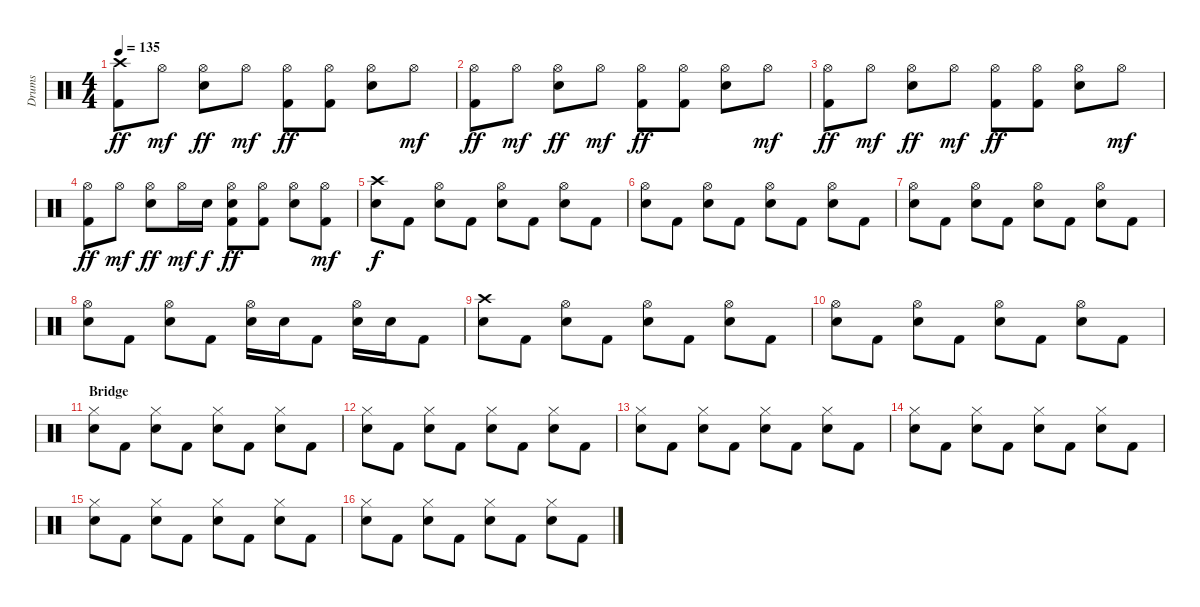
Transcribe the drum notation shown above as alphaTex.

\track ("Drums" "Drums") {instrument percussion}
\staff {score}
\articulation defaults
\ts (4 4)
\tempo 135
\clef neutral
\ks c
("Crash high (hit)" "Kick (hit) 2").8{dy ff} "Hi-Hat (open)".8{dy mf} ("Hi-Hat (open)" "Snare (hit) 2").8{dy ff} "Hi-Hat (open)".8{dy mf} ("Hi-Hat (open)" "Kick (hit) 2").8{dy ff} ("Hi-Hat (open)" "Kick (hit) 2").8 ("Hi-Hat (open)" "Snare (hit) 2").8 "Hi-Hat (open)".8{dy mf} |
("Hi-Hat (open)" "Kick (hit) 2").8{dy ff} "Hi-Hat (open)".8{dy mf} ("Hi-Hat (open)" "Snare (hit) 2").8{dy ff} "Hi-Hat (open)".8{dy mf} ("Hi-Hat (open)" "Kick (hit) 2").8{dy ff} ("Hi-Hat (open)" "Kick (hit) 2").8 ("Hi-Hat (open)" "Snare (hit) 2").8 "Hi-Hat (open)".8{dy mf} |
("Hi-Hat (open)" "Kick (hit) 2").8{dy ff} "Hi-Hat (open)".8{dy mf} ("Hi-Hat (open)" "Snare (hit) 2").8{dy ff} "Hi-Hat (open)".8{dy mf} ("Hi-Hat (open)" "Kick (hit) 2").8{dy ff} ("Hi-Hat (open)" "Kick (hit) 2").8 ("Hi-Hat (open)" "Snare (hit) 2").8 "Hi-Hat (open)".8{dy mf} |
("Hi-Hat (open)" "Kick (hit) 2").8{dy ff} "Hi-Hat (open)".8{dy mf} ("Hi-Hat (open)" "Snare (hit) 2").8{dy ff} "Hi-Hat (open)".16{dy mf} "Snare (hit) 2".16{dy f} ("Hi-Hat (open)" "Snare (hit) 2" "Kick (hit) 2").8{dy ff} ("Hi-Hat (open)" "Kick (hit) 2").8 ("Hi-Hat (open)" "Snare (hit) 2").8 ("Hi-Hat (open)" "Kick (hit) 2").8{dy mf} |
("Crash high (hit)" "Snare (hit) 2").8{dy f} "Kick (hit) 2".8 ("Hi-Hat (open)" "Snare (hit) 2").8 "Kick (hit) 2".8 ("Hi-Hat (open)" "Snare (hit) 2").8 "Kick (hit) 2".8 ("Hi-Hat (open)" "Snare (hit) 2").8 "Kick (hit) 2".8 |
("Hi-Hat (open)" "Snare (hit) 2").8 "Kick (hit) 2".8 ("Hi-Hat (open)" "Snare (hit) 2").8 "Kick (hit) 2".8 ("Hi-Hat (open)" "Snare (hit) 2").8 "Kick (hit) 2".8 ("Hi-Hat (open)" "Snare (hit) 2").8 "Kick (hit) 2".8 |
("Hi-Hat (open)" "Snare (hit) 2").8 "Kick (hit) 2".8 ("Hi-Hat (open)" "Snare (hit) 2").8 "Kick (hit) 2".8 ("Hi-Hat (open)" "Snare (hit) 2").8 "Kick (hit) 2".8 ("Hi-Hat (open)" "Snare (hit) 2").8 "Kick (hit) 2".8 |
("Hi-Hat (open)" "Snare (hit) 2").8 "Kick (hit) 2".8 ("Hi-Hat (open)" "Snare (hit) 2").8 "Kick (hit) 2".8 ("Hi-Hat (open)" "Snare (hit) 2").16 "Snare (hit) 2".16 "Kick (hit) 2".8 ("Hi-Hat (open)" "Snare (hit) 2").16 "Snare (hit) 2".16 "Kick (hit) 2".8 |
("Crash high (hit)" "Snare (hit) 2").8 "Kick (hit) 2".8 ("Hi-Hat (open)" "Snare (hit) 2").8 "Kick (hit) 2".8 ("Hi-Hat (open)" "Snare (hit) 2").8 "Kick (hit) 2".8 ("Hi-Hat (open)" "Snare (hit) 2").8 "Kick (hit) 2".8 |
("Hi-Hat (open)" "Snare (hit) 2").8 "Kick (hit) 2".8 ("Hi-Hat (open)" "Snare (hit) 2").8 "Kick (hit) 2".8 ("Hi-Hat (open)" "Snare (hit) 2").8 "Kick (hit) 2".8 ("Hi-Hat (open)" "Snare (hit) 2").8 "Kick (hit) 2".8 |
\section ("" "Bridge")
("Hi-Hat (closed)" "Snare (hit) 2").8 "Kick (hit) 2".8 ("Hi-Hat (closed)" "Snare (hit) 2").8 "Kick (hit) 2".8 ("Hi-Hat (closed)" "Snare (hit) 2").8 "Kick (hit) 2".8 ("Hi-Hat (closed)" "Snare (hit) 2").8 "Kick (hit) 2".8 |
("Hi-Hat (closed)" "Snare (hit) 2").8 "Kick (hit) 2".8 ("Hi-Hat (closed)" "Snare (hit) 2").8 "Kick (hit) 2".8 ("Hi-Hat (closed)" "Snare (hit) 2").8 "Kick (hit) 2".8 ("Hi-Hat (closed)" "Snare (hit) 2").8 "Kick (hit) 2".8 |
("Hi-Hat (closed)" "Snare (hit) 2").8 "Kick (hit) 2".8 ("Hi-Hat (closed)" "Snare (hit) 2").8 "Kick (hit) 2".8 ("Hi-Hat (closed)" "Snare (hit) 2").8 "Kick (hit) 2".8 ("Hi-Hat (closed)" "Snare (hit) 2").8 "Kick (hit) 2".8 |
("Hi-Hat (closed)" "Snare (hit) 2").8 "Kick (hit) 2".8 ("Hi-Hat (closed)" "Snare (hit) 2").8 "Kick (hit) 2".8 ("Hi-Hat (closed)" "Snare (hit) 2").8 "Kick (hit) 2".8 ("Hi-Hat (closed)" "Snare (hit) 2").8 "Kick (hit) 2".8 |
("Hi-Hat (closed)" "Snare (hit) 2").8 "Kick (hit) 2".8 ("Hi-Hat (closed)" "Snare (hit) 2").8 "Kick (hit) 2".8 ("Hi-Hat (closed)" "Snare (hit) 2").8 "Kick (hit) 2".8 ("Hi-Hat (closed)" "Snare (hit) 2").8 "Kick (hit) 2".8 |
("Hi-Hat (closed)" "Snare (hit) 2").8 "Kick (hit) 2".8 ("Hi-Hat (closed)" "Snare (hit) 2").8 "Kick (hit) 2".8 ("Hi-Hat (closed)" "Snare (hit) 2").8 "Kick (hit) 2".8 ("Hi-Hat (closed)" "Snare (hit) 2").8 "Kick (hit) 2".8
